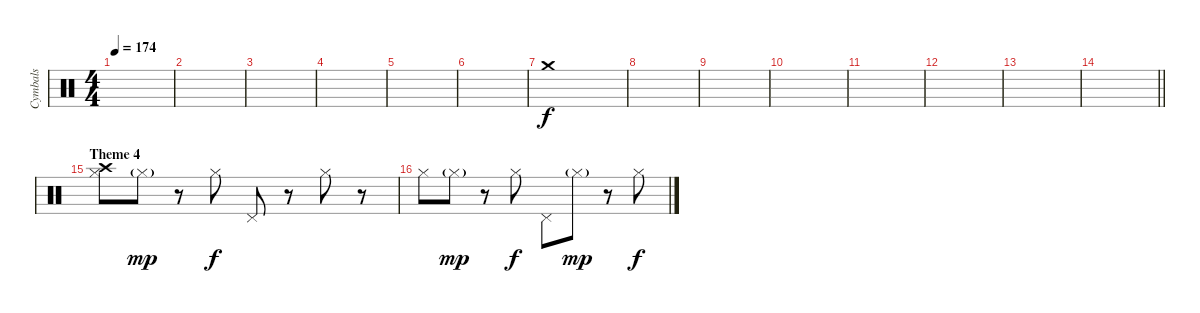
\track ("Cymbals" "Cymbals") {instrument percussion}
\staff {score}
\articulation defaults
\ts (4 4)
\tempo 174
\clef neutral
\ks c
|
|
|
|
|
|
"Crash medium (hit)".1 |
|
|
|
|
|
|
\barLineRight lightlight
|
\section ("" "Theme 4")
("Crash high (hit)" "Hi-Hat (closed)").8 "Hi-Hat (closed)"{g}.8{dy mp} r.8 "Hi-Hat (closed)".8{dy f} "Pedal Hi-Hat (hit)".8 r.8 "Hi-Hat (closed)".8 r.8 |
"Hi-Hat (closed)".8 "Hi-Hat (closed)"{g}.8{dy mp} r.8 "Hi-Hat (closed)".8{dy f} "Pedal Hi-Hat (hit)".8 "Hi-Hat (closed)"{g}.8{dy mp} r.8 "Hi-Hat (closed)".8{dy f}
